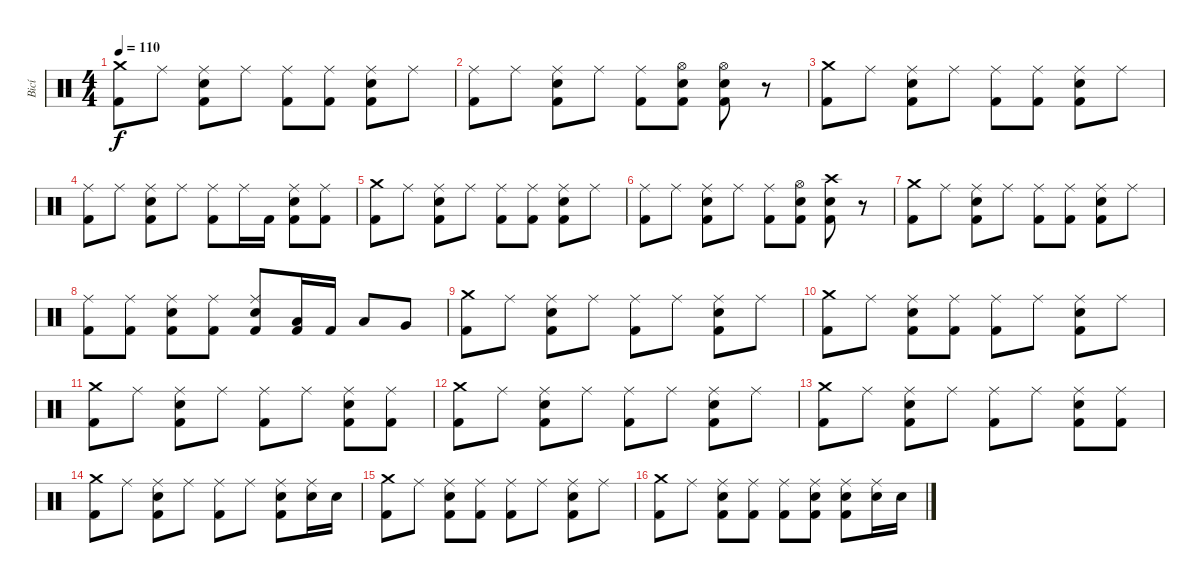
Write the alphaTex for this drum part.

\track ("Bicí" "Bicí") {instrument percussion}
\staff {score}
\articulation defaults
\ts (4 4)
\tempo 110
\clef neutral
\ks c
("Crash medium (hit)" "Kick (hit) 2").8{dy f} "Ride (middle)".8 ("Ride (middle)" "Electric Snare (hit)" "Kick (hit) 2").8 "Ride (middle)".8 ("Ride (middle)" "Kick (hit) 2").8 ("Ride (middle)" "Kick (hit) 2").8 ("Ride (middle)" "Electric Snare (hit)" "Kick (hit) 2").8 "Ride (middle)".8 |
("Ride (middle)" "Kick (hit) 2").8 "Ride (middle)".8 ("Ride (middle)" "Electric Snare (hit)" "Kick (hit) 2").8 "Ride (middle)".8 ("Ride (middle)" "Kick (hit) 2").8 ("Hi-Hat (open)" "Electric Snare (hit)" "Kick (hit) 2").8 ("Hi-Hat (open)" "Electric Snare (hit)" "Kick (hit) 2").8 r.8 |
("Crash medium (hit)" "Kick (hit) 2").8 "Ride (middle)".8 ("Ride (middle)" "Electric Snare (hit)" "Kick (hit) 2").8 "Ride (middle)".8 ("Ride (middle)" "Kick (hit) 2").8 ("Ride (middle)" "Kick (hit) 2").8 ("Ride (middle)" "Electric Snare (hit)" "Kick (hit) 2").8 "Ride (middle)".8 |
("Ride (middle)" "Kick (hit) 2").8 "Ride (middle)".8 ("Ride (middle)" "Electric Snare (hit)" "Kick (hit) 2").8 "Ride (middle)".8 ("Ride (middle)" "Kick (hit) 2").8 "Ride (middle)".16 "Kick (hit) 2".16 ("Ride (middle)" "Electric Snare (hit)" "Kick (hit) 2").8 ("Ride (middle)" "Kick (hit) 2").8 |
("Crash medium (hit)" "Kick (hit) 2").8 "Ride (middle)".8 ("Ride (middle)" "Electric Snare (hit)" "Kick (hit) 2").8 "Ride (middle)".8 ("Ride (middle)" "Kick (hit) 2").8 ("Ride (middle)" "Kick (hit) 2").8 ("Ride (middle)" "Electric Snare (hit)" "Kick (hit) 2").8 "Ride (middle)".8 |
("Ride (middle)" "Kick (hit) 2").8 "Ride (middle)".8 ("Ride (middle)" "Electric Snare (hit)" "Kick (hit) 2").8 "Ride (middle)".8 ("Ride (middle)" "Kick (hit) 2").8 ("Hi-Hat (open)" "Electric Snare (hit)" "Kick (hit) 2").8 ("Crash high (hit)" "Electric Snare (hit)" "Kick (hit) 2").8 r.8 |
("Crash medium (hit)" "Kick (hit) 2").8 "Ride (middle)".8 ("Ride (middle)" "Electric Snare (hit)" "Kick (hit) 2").8 "Ride (middle)".8 ("Ride (middle)" "Kick (hit) 2").8 ("Ride (middle)" "Kick (hit) 2").8 ("Ride (middle)" "Electric Snare (hit)" "Kick (hit) 2").8 "Ride (middle)".8 |
("Ride (middle)" "Kick (hit) 2").8 ("Ride (middle)" "Kick (hit) 2").8 ("Ride (middle)" "Electric Snare (hit)" "Kick (hit) 2").8 ("Ride (middle)" "Kick (hit) 2").8 ("Ride (middle)" "Electric Snare (hit)" "Kick (hit) 2").8 ("Low Tom (hit)" "Kick (hit) 2").16 "Kick (hit) 2".16 "Low Tom (hit)".8 "Very Low Tom (hit)".8 |
("Crash medium (hit)" "Kick (hit) 2").8 "Ride (middle)".8 ("Ride (middle)" "Electric Snare (hit)" "Kick (hit) 2").8 "Ride (middle)".8 ("Ride (middle)" "Kick (hit) 2").8 "Ride (middle)".8 ("Ride (middle)" "Electric Snare (hit)" "Kick (hit) 2").8 "Ride (middle)".8 |
("Crash medium (hit)" "Kick (hit) 2").8 "Ride (middle)".8 ("Ride (middle)" "Electric Snare (hit)" "Kick (hit) 2").8 ("Ride (middle)" "Kick (hit) 2").8 ("Ride (middle)" "Kick (hit) 2").8 "Ride (middle)".8 ("Ride (middle)" "Electric Snare (hit)" "Kick (hit) 2").8 "Ride (middle)".8 |
("Crash medium (hit)" "Kick (hit) 2").8 "Ride (middle)".8 ("Ride (middle)" "Electric Snare (hit)" "Kick (hit) 2").8 "Ride (middle)".8 ("Ride (middle)" "Kick (hit) 2").8 "Ride (middle)".8 ("Ride (middle)" "Electric Snare (hit)" "Kick (hit) 2").8 ("Ride (middle)" "Kick (hit) 2").8 |
("Crash medium (hit)" "Kick (hit) 2").8 "Ride (middle)".8 ("Ride (middle)" "Electric Snare (hit)" "Kick (hit) 2").8 "Ride (middle)".8 ("Ride (middle)" "Kick (hit) 2").8 "Ride (middle)".8 ("Ride (middle)" "Electric Snare (hit)" "Kick (hit) 2").8 "Ride (middle)".8 |
("Crash medium (hit)" "Kick (hit) 2").8 "Ride (middle)".8 ("Ride (middle)" "Electric Snare (hit)" "Kick (hit) 2").8 "Ride (middle)".8 ("Ride (middle)" "Kick (hit) 2").8 "Ride (middle)".8 ("Ride (middle)" "Electric Snare (hit)" "Kick (hit) 2").8 ("Ride (middle)" "Kick (hit) 2").8 |
("Crash medium (hit)" "Kick (hit) 2").8 "Ride (middle)".8 ("Ride (middle)" "Electric Snare (hit)" "Kick (hit) 2").8 "Ride (middle)".8 ("Ride (middle)" "Kick (hit) 2").8 "Ride (middle)".8 ("Ride (middle)" "Electric Snare (hit)" "Kick (hit) 2").8 ("Ride (middle)" "Electric Snare (hit)").16 "Electric Snare (hit)".16 |
("Crash medium (hit)" "Kick (hit) 2").8 "Ride (middle)".8 ("Ride (middle)" "Electric Snare (hit)" "Kick (hit) 2").8 ("Ride (middle)" "Kick (hit) 2").8 ("Ride (middle)" "Kick (hit) 2").8 "Ride (middle)".8 ("Ride (middle)" "Electric Snare (hit)" "Kick (hit) 2").8 "Ride (middle)".8 |
("Crash medium (hit)" "Kick (hit) 2").8 "Ride (middle)".8 ("Ride (middle)" "Electric Snare (hit)" "Kick (hit) 2").8 ("Ride (middle)" "Kick (hit) 2").8 ("Ride (middle)" "Kick (hit) 2").8 ("Ride (middle)" "Electric Snare (hit)" "Kick (hit) 2").8 ("Ride (middle)" "Electric Snare (hit)" "Kick (hit) 2").8 ("Ride (middle)" "Electric Snare (hit)").16 "Electric Snare (hit)".16
